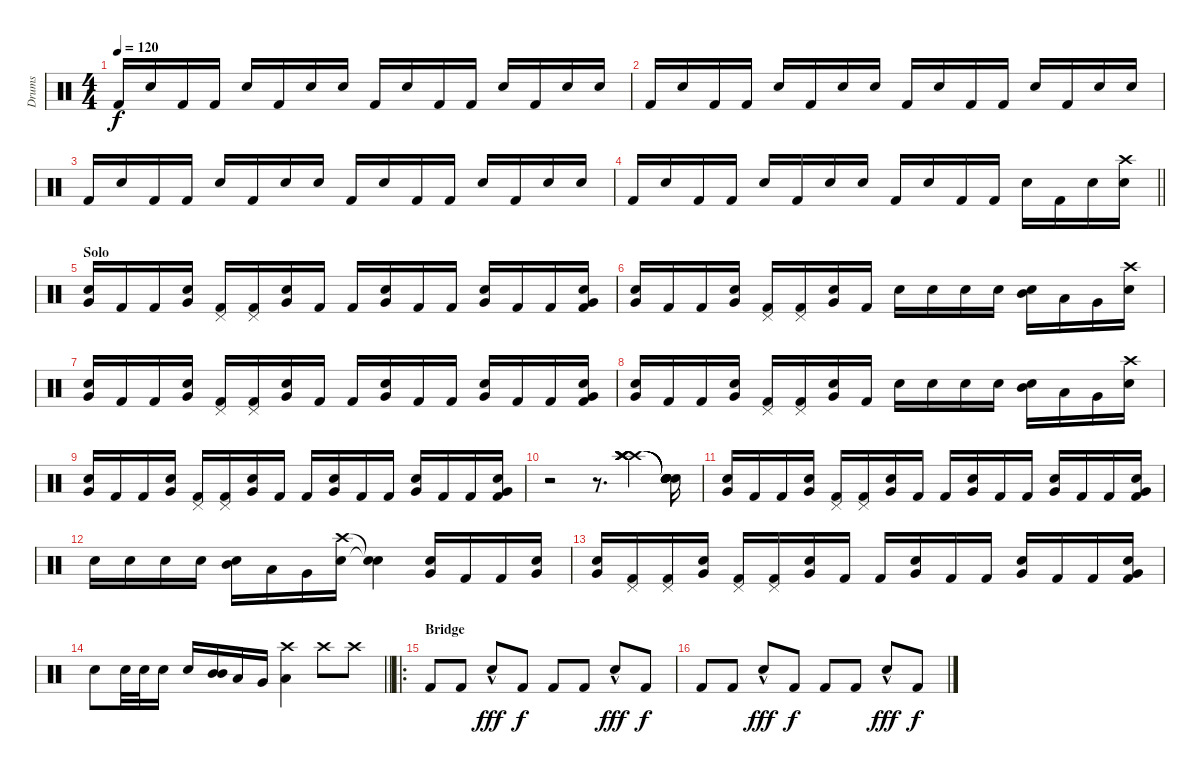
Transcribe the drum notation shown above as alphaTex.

\track ("Drums" "Drums") {instrument percussion}
\staff {score}
\articulation defaults
\ts (4 4)
\tempo 120
\clef neutral
\ks c "Kick (hit) 2".16{dy f} "Snare (hit) 2".16 "Kick (hit) 2".16 "Kick (hit) 2".16 "Snare (hit) 2".16 "Kick (hit) 2".16 "Snare (hit) 2".16 "Snare (hit) 2".16 "Kick (hit) 2".16 "Snare (hit) 2".16 "Kick (hit) 2".16 "Kick (hit) 2".16 "Snare (hit) 2".16 "Kick (hit) 2".16 "Snare (hit) 2".16 "Snare (hit) 2".16
|
"Kick (hit) 2".16 "Snare (hit) 2".16 "Kick (hit) 2".16 "Kick (hit) 2".16 "Snare (hit) 2".16 "Kick (hit) 2".16 "Snare (hit) 2".16 "Snare (hit) 2".16 "Kick (hit) 2".16 "Snare (hit) 2".16 "Kick (hit) 2".16 "Kick (hit) 2".16 "Snare (hit) 2".16 "Kick (hit) 2".16 "Snare (hit) 2".16 "Snare (hit) 2".16 |
"Kick (hit) 2".16 "Snare (hit) 2".16 "Kick (hit) 2".16 "Kick (hit) 2".16 "Snare (hit) 2".16 "Kick (hit) 2".16 "Snare (hit) 2".16 "Snare (hit) 2".16 "Kick (hit) 2".16 "Snare (hit) 2".16 "Kick (hit) 2".16 "Kick (hit) 2".16 "Snare (hit) 2".16 "Kick (hit) 2".16 "Snare (hit) 2".16 "Snare (hit) 2".16 |
\barLineRight lightlight "Kick (hit) 2".16 "Snare (hit) 2".16 "Kick (hit) 2".16 "Kick (hit) 2".16 "Snare (hit) 2".16 "Kick (hit) 2".16 "Snare (hit) 2".16 "Snare (hit) 2".16 "Kick (hit) 2".16 "Snare (hit) 2".16 "Kick (hit) 2".16 "Kick (hit) 2".16 "Snare (hit) 2".16 "Kick (hit) 2".16 "Snare (hit) 2".16
("Crash high (hit)" "Snare (hit) 2").16 |
\section ("" "Solo")
("Very Low Tom (hit)" "Snare (hit) 2").16 "Kick (hit) 2".16 "Kick (hit) 2".16 ("Very Low Tom (hit)" "Snare (hit) 2").16 ("Pedal Hi-Hat (hit)" "Kick (hit) 2").16 ("Pedal Hi-Hat (hit)" "Kick (hit) 2").16 ("Very Low Tom (hit)" "Snare (hit) 2").16 "Kick (hit) 2".16 "Kick (hit) 2".16 ("Very Low Tom (hit)" "Snare (hit) 2").16 "Kick (hit) 2".16 "Kick (hit) 2".16 ("Very Low Tom (hit)" "Snare (hit) 2").16 "Kick (hit) 2".16 "Kick (hit) 2".16 ("Kick (hit) 2" "Very Low Tom (hit)" "Snare (hit) 2").16 |
("Very Low Tom (hit)" "Snare (hit) 2").16 "Kick (hit) 2".16 "Kick (hit) 2".16 ("Very Low Tom (hit)" "Snare (hit) 2").16 ("Pedal Hi-Hat (hit)" "Kick (hit) 2").16 ("Pedal Hi-Hat (hit)" "Kick (hit) 2").16 ("Very Low Tom (hit)" "Snare (hit) 2").16 "Kick (hit) 2".16 "Snare (hit) 2".16 "Snare (hit) 2".16 "Snare (hit) 2".16 "Snare (hit) 2".16 ("Snare (hit) 2" "Mid Tom (hit)").16 "Low Tom (hit)".16 "Very Low Tom (hit)".16 ("Crash high (hit)" "Snare (hit) 2").16 |
("Very Low Tom (hit)" "Snare (hit) 2").16 "Kick (hit) 2".16 "Kick (hit) 2".16 ("Very Low Tom (hit)" "Snare (hit) 2").16 ("Pedal Hi-Hat (hit)" "Kick (hit) 2").16 ("Pedal Hi-Hat (hit)" "Kick (hit) 2").16 ("Very Low Tom (hit)" "Snare (hit) 2").16 "Kick (hit) 2".16 "Kick (hit) 2".16 ("Very Low Tom (hit)" "Snare (hit) 2").16 "Kick (hit) 2".16 "Kick (hit) 2".16 ("Very Low Tom (hit)" "Snare (hit) 2").16 "Kick (hit) 2".16 "Kick (hit) 2".16 ("Kick (hit) 2" "Very Low Tom (hit)" "Snare (hit) 2").16 |
("Very Low Tom (hit)" "Snare (hit) 2").16 "Kick (hit) 2".16 "Kick (hit) 2".16 ("Very Low Tom (hit)" "Snare (hit) 2").16 ("Pedal Hi-Hat (hit)" "Kick (hit) 2").16 ("Pedal Hi-Hat (hit)" "Kick (hit) 2").16 ("Very Low Tom (hit)" "Snare (hit) 2").16 "Kick (hit) 2".16 "Snare (hit) 2".16 "Snare (hit) 2".16 "Snare (hit) 2".16 "Snare (hit) 2".16 ("Snare (hit) 2" "Mid Tom (hit)").16 "Low Tom (hit)".16 "Very Low Tom (hit)".16 ("Crash high (hit)" "Snare (hit) 2").16 |
("Very Low Tom (hit)" "Snare (hit) 2").16 "Kick (hit) 2".16 "Kick (hit) 2".16 ("Very Low Tom (hit)" "Snare (hit) 2").16 ("Pedal Hi-Hat (hit)" "Kick (hit) 2").16 ("Pedal Hi-Hat (hit)" "Kick (hit) 2").16 ("Very Low Tom (hit)" "Snare (hit) 2").16 "Kick (hit) 2".16 "Kick (hit) 2".16 ("Very Low Tom (hit)" "Snare (hit) 2").16 "Kick (hit) 2".16 "Kick (hit) 2".16 ("Very Low Tom (hit)" "Snare (hit) 2").16 "Kick (hit) 2".16 "Kick (hit) 2".16 ("Kick (hit) 2" "Very Low Tom (hit)" "Snare (hit) 2").16 |
r.2 r.8{d} ("Crash high (hit)" "Crash high (hit)" "Crash high (hit)" "Crash high (hit)" "Crash high (hit)" "Crash high (hit)").4 ("Snare (hit)"{t} "Snare (hit)"{t} "Snare (hit)"{t} "Snare (hit)"{t} "Snare (hit)"{t} "Snare (hit)"{t}).16 |
("Very Low Tom (hit)" "Snare (hit) 2").16 "Kick (hit) 2".16 "Kick (hit) 2".16 ("Very Low Tom (hit)" "Snare (hit) 2").16 ("Pedal Hi-Hat (hit)" "Kick (hit) 2").16 ("Pedal Hi-Hat (hit)" "Kick (hit) 2").16 ("Very Low Tom (hit)" "Snare (hit) 2").16 "Kick (hit) 2".16 "Kick (hit) 2".16 ("Very Low Tom (hit)" "Snare (hit) 2").16 "Kick (hit) 2".16 "Kick (hit) 2".16 ("Very Low Tom (hit)" "Snare (hit) 2").16 "Kick (hit) 2".16 "Kick (hit) 2".16 ("Kick (hit) 2" "Very Low Tom (hit)" "Snare (hit) 2").16 |
"Snare (hit) 2".16 "Snare (hit) 2".16 "Snare (hit) 2".16 "Snare (hit) 2".16 ("Snare (hit) 2" "Mid Tom (hit)").16 "Low Tom (hit)".16 "Very Low Tom (hit)".16 ("Crash high (hit)" "Snare (hit) 2").16 ("Snare (hit)"{t} "Snare (hit)"{t}).4 ("Very Low Tom (hit)" "Snare (hit) 2").16 "Kick (hit) 2".16 "Kick (hit) 2".16 ("Very Low Tom (hit)" "Snare (hit) 2").16 |
("Very Low Tom (hit)" "Snare (hit) 2").16 ("Pedal Hi-Hat (hit)" "Kick (hit) 2").16 ("Pedal Hi-Hat (hit)" "Kick (hit) 2").16 ("Very Low Tom (hit)" "Snare (hit) 2").16 ("Pedal Hi-Hat (hit)" "Kick (hit) 2").16 ("Pedal Hi-Hat (hit)" "Kick (hit) 2").16 ("Very Low Tom (hit)" "Snare (hit) 2").16 "Kick (hit) 2".16 "Kick (hit) 2".16 ("Very Low Tom (hit)" "Snare (hit) 2").16 "Kick (hit) 2".16 "Kick (hit) 2".16 ("Very Low Tom (hit)" "Snare (hit) 2").16 "Kick (hit) 2".16 "Kick (hit) 2".16 ("Kick (hit) 2" "Very Low Tom (hit)" "Snare (hit) 2").16 |
\barLineRight lightlight "Snare (hit) 2".8 "Snare (hit) 2".32 "Snare (hit) 2".32 "Snare (hit) 2".16 "Snare (hit) 2".16
("Mid Tom (hit)" "Mid Tom (hit)").16 "Low Tom (hit)".16 "Very Low Tom (hit)".16 ("Crash high (hit)" "Low Floor Tom (hit)").4 "Crash high (hit)".8 "Crash high (hit)".8 |
\ro
\section ("" "Bridge")
"Kick (hit) 2".8 "Kick (hit) 2".8 "Snare (hit) 2"{hac}.8{dy fff} "Kick (hit) 2".8{dy f} "Kick (hit) 2".8 "Kick (hit) 2".8 "Snare (hit) 2"{hac}.8{dy fff} "Kick (hit) 2".8{dy f} |
"Kick (hit) 2".8 "Kick (hit) 2".8 "Snare (hit) 2"{hac}.8{dy fff} "Kick (hit) 2".8{dy f} "Kick (hit) 2".8 "Kick (hit) 2".8 "Snare (hit) 2"{hac}.8{dy fff} "Kick (hit) 2".8{dy f}
